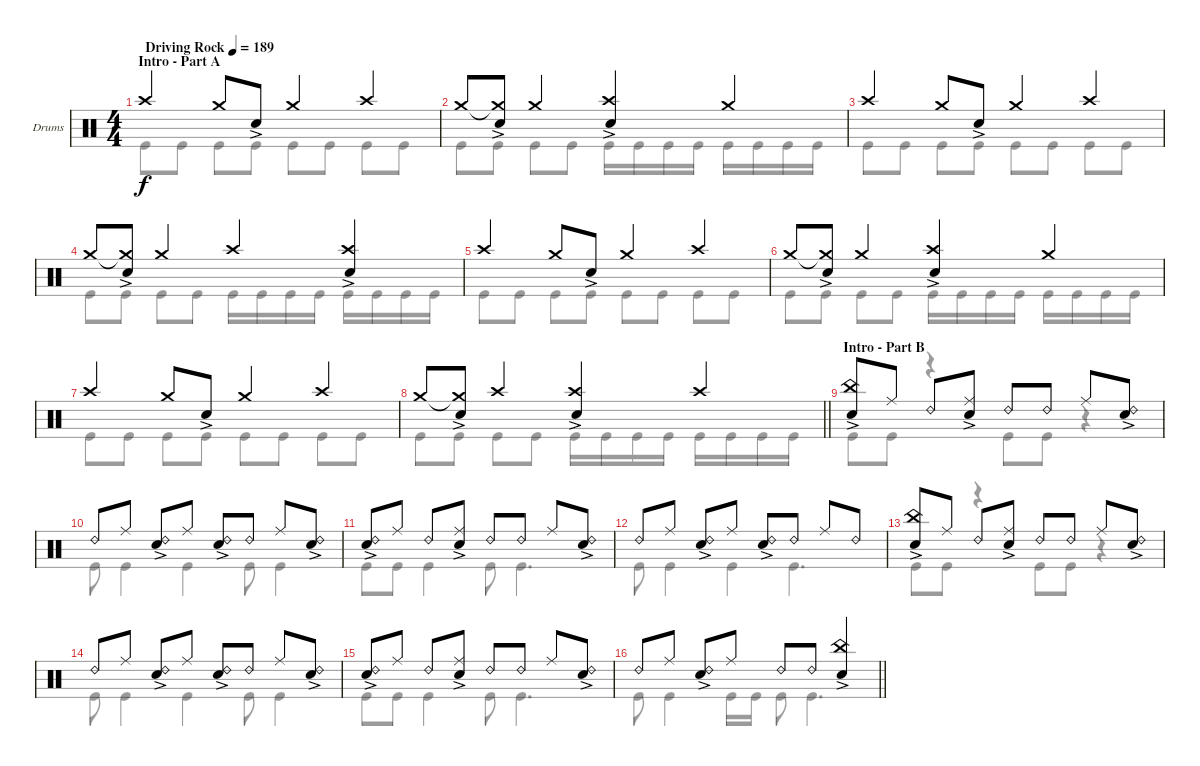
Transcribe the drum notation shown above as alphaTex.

\bracketExtendMode groupsimilarinstruments
\firstSystemTrackNameOrientation horizontal
\otherSystemsTrackNameOrientation horizontal
\track ("Drumkit" "Drums") {instrument percussion}
\staff {score}
\articulation defaults
\voice
\ts (4 4)
\beaming (8 2 2 2 2)
\section ("" "Intro - Part A")
\tempo (189 "Driving Rock")
\clef neutral
\ks c "Crash high (hit)".4{dy f} "Crash medium (hit)".8 "Snare (hit) 2"{ac}.8 "Crash medium (hit)".4 "Crash high (hit)".4
|
"Crash medium (hit)".8 ("Crash medium (hit)"{t} "Snare (hit) 2"{ac}).8 "Crash medium (hit)".4 ("Crash high (hit)" "Snare (hit) 2"{ac}).4 "Crash medium (hit)".4 |
"Crash high (hit)".4 "Crash medium (hit)".8 "Snare (hit) 2"{ac}.8 "Crash medium (hit)".4 "Crash high (hit)".4 |
"Crash medium (hit)".8 ("Crash medium (hit)"{t} "Snare (hit) 2"{ac}).8 "Crash medium (hit)".4 "Crash high (hit)".4 ("Crash high (hit)" "Snare (hit) 2"{ac}).4 |
"Crash high (hit)".4 "Crash medium (hit)".8 "Snare (hit) 2"{ac}.8 "Crash medium (hit)".4 "Crash high (hit)".4 |
"Crash medium (hit)".8 ("Crash medium (hit)"{t} "Snare (hit) 2"{ac}).8 "Crash medium (hit)".4 ("Crash high (hit)" "Snare (hit) 2"{ac}).4 "Crash medium (hit)".4 |
"Crash high (hit)".4 "Crash medium (hit)".8 "Snare (hit) 2"{ac}.8 "Crash medium (hit)".4 "Crash high (hit)".4 |
\barLineRight lightlight "Crash medium (hit)".8
("Crash medium (hit)"{t} "Snare (hit) 2"{ac}).8 "Crash high (hit)".4 ("Crash high (hit)" "Snare (hit) 2"{ac}).4 "Crash high (hit)".4 |
\section ("" "Intro - Part B")
("China (hit)" "Snare (hit) 2"{ac}).8 "Ride (middle)".8 "Ride (bell) 2".8 ("Ride (middle)" "Snare (hit) 2"{ac}).8 "Ride (bell) 2".8 "Ride (bell) 2".8 "Ride (middle)".8 ("Ride (bell) 2" "Snare (hit) 2"{ac}).8 |
"Ride (bell) 2".8 "Ride (middle)".8 ("Ride (bell) 2" "Snare (hit) 2"{ac}).8 "Ride (middle)".8 ("Ride (bell) 2" "Snare (hit) 2"{ac}).8 "Ride (bell) 2".8 "Ride (middle)".8 ("Ride (bell) 2" "Snare (hit) 2"{ac}).8 |
("Ride (bell) 2" "Snare (hit) 2"{ac}).8 "Ride (middle)".8 "Ride (bell) 2".8 ("Ride (middle)" "Snare (hit) 2"{ac}).8 "Ride (bell) 2".8 "Ride (bell) 2".8 "Ride (middle)".8 ("Ride (bell) 2" "Snare (hit) 2"{ac}).8 |
"Ride (bell) 2".8 "Ride (middle)".8 ("Ride (bell) 2" "Snare (hit) 2"{ac}).8 "Ride (middle)".8 ("Ride (bell) 2" "Snare (hit) 2"{ac}).8 "Ride (bell) 2".8 "Ride (middle)".8 "Ride (bell) 2".8 |
("China (hit)" "Snare (hit) 2"{ac}).8 "Ride (middle)".8 "Ride (bell) 2".8 ("Ride (middle)" "Snare (hit) 2"{ac}).8 "Ride (bell) 2".8 "Ride (bell) 2".8 "Ride (middle)".8 ("Ride (bell) 2" "Snare (hit) 2"{ac}).8 |
"Ride (bell) 2".8 "Ride (middle)".8 ("Ride (bell) 2" "Snare (hit) 2"{ac}).8 "Ride (middle)".8 ("Ride (bell) 2" "Snare (hit) 2"{ac}).8 "Ride (bell) 2".8 "Ride (middle)".8 ("Ride (bell) 2" "Snare (hit) 2"{ac}).8 |
("Ride (bell) 2" "Snare (hit) 2"{ac}).8 "Ride (middle)".8 "Ride (bell) 2".8 ("Ride (middle)" "Snare (hit) 2"{ac}).8 "Ride (bell) 2".8 "Ride (bell) 2".8 "Ride (middle)".8 ("Ride (bell) 2" "Snare (hit) 2"{ac}).8 |
\tempo (184 "Moderate Rock" 1 hide)
\barLineRight lightlight "Ride (bell) 2".8 "Ride (middle)".8
("Ride (bell) 2" "Snare (hit) 2"{ac}).8 "Ride (middle)".8 "Ride (bell) 2".8 "Ride (bell) 2".8 ("China (hit)" "Snare (hit) 2"{ac}).4
\voice
\clef neutral
\ottava regular
\simile none
\ks c "Kick (hit)".8{dy f} "Kick (hit)".8 "Kick (hit)".8 "Kick (hit)".8 "Kick (hit)".8 "Kick (hit)".8 "Kick (hit)".8 "Kick (hit)".8
|
"Kick (hit)".8 "Kick (hit)".8 "Kick (hit)".8 "Kick (hit)".8 "Kick (hit)".16 "Kick (hit)".16 "Kick (hit)".16 "Kick (hit)".16 "Kick (hit)".16 "Kick (hit)".16 "Kick (hit)".16 "Kick (hit)".16 |
"Kick (hit)".8 "Kick (hit)".8 "Kick (hit)".8 "Kick (hit)".8 "Kick (hit)".8 "Kick (hit)".8 "Kick (hit)".8 "Kick (hit)".8 |
"Kick (hit)".8 "Kick (hit)".8 "Kick (hit)".8 "Kick (hit)".8 "Kick (hit)".16 "Kick (hit)".16 "Kick (hit)".16 "Kick (hit)".16 "Kick (hit)".16 "Kick (hit)".16 "Kick (hit)".16 "Kick (hit)".16 |
"Kick (hit)".8 "Kick (hit)".8 "Kick (hit)".8 "Kick (hit)".8 "Kick (hit)".8 "Kick (hit)".8 "Kick (hit)".8 "Kick (hit)".8 |
"Kick (hit)".8 "Kick (hit)".8 "Kick (hit)".8 "Kick (hit)".8 "Kick (hit)".16 "Kick (hit)".16 "Kick (hit)".16 "Kick (hit)".16 "Kick (hit)".16 "Kick (hit)".16 "Kick (hit)".16 "Kick (hit)".16 |
"Kick (hit)".8 "Kick (hit)".8 "Kick (hit)".8 "Kick (hit)".8 "Kick (hit)".8 "Kick (hit)".8 "Kick (hit)".8 "Kick (hit)".8 |
\barLineRight lightlight "Kick (hit)".8 "Kick (hit)".8 "Kick (hit)".8 "Kick (hit)".8 "Kick (hit)".16 "Kick (hit)".16 "Kick (hit)".16 "Kick (hit)".16 "Kick (hit)".16 "Kick (hit)".16 "Kick (hit)".16 "Kick (hit)".16
|
"Kick (hit)".8 "Kick (hit)".8 r.4 "Kick (hit)".8 "Kick (hit)".8 r.4 |
"Kick (hit)".8 "Kick (hit)".4 "Kick (hit)".4 "Kick (hit)".8 "Kick (hit)".4 |
"Kick (hit)".8 "Kick (hit)".8 "Kick (hit)".4 "Kick (hit)".8 "Kick (hit)".4{d} |
"Kick (hit)".8 "Kick (hit)".4 "Kick (hit)".4 "Kick (hit)".4{d} |
"Kick (hit)".8 "Kick (hit)".8 r.4 "Kick (hit)".8 "Kick (hit)".8 r.4 |
"Kick (hit)".8 "Kick (hit)".4 "Kick (hit)".4 "Kick (hit)".8 "Kick (hit)".4 |
"Kick (hit)".8 "Kick (hit)".8 "Kick (hit)".4 "Kick (hit)".8 "Kick (hit)".4{d} |
\barLineRight lightlight "Kick (hit)".8 "Kick (hit)".4 "Kick (hit)".16 "Kick (hit)".16 "Kick (hit)".8 "Kick (hit)".4{d}
